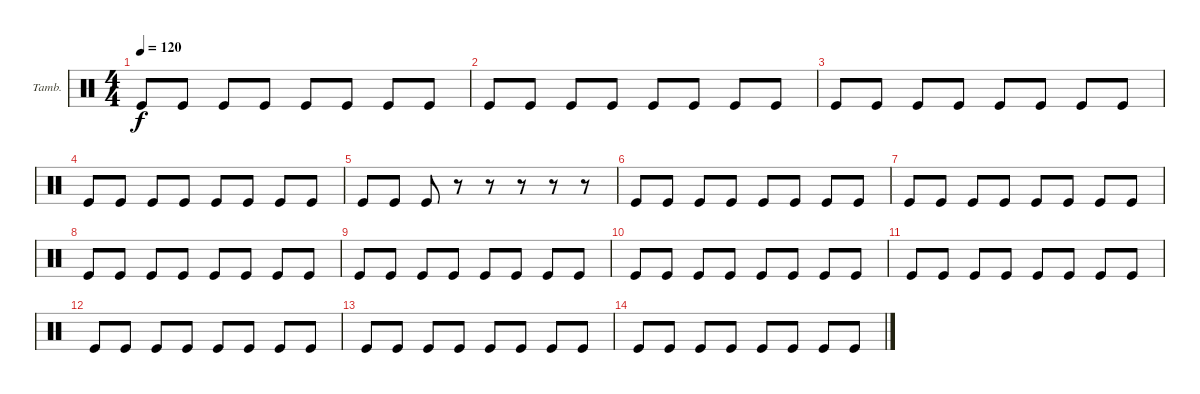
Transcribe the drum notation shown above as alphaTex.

\bracketExtendMode groupsimilarinstruments
\firstSystemTrackNameOrientation horizontal
\otherSystemsTrackNameOrientation horizontal
\track ("Tambourine" "Tamb.") {instrument percussion}
\staff {score}
\articulation defaults
\ts (4 4)
\tempo 120
\clef neutral
\ks c "Kick (hit)".8{dy f} "Kick (hit)".8 "Kick (hit)".8 "Kick (hit)".8 "Kick (hit)".8 "Kick (hit)".8 "Kick (hit)".8 "Kick (hit)".8
|
"Kick (hit)".8 "Kick (hit)".8 "Kick (hit)".8 "Kick (hit)".8 "Kick (hit)".8 "Kick (hit)".8 "Kick (hit)".8 "Kick (hit)".8 |
"Kick (hit)".8 "Kick (hit)".8 "Kick (hit)".8 "Kick (hit)".8 "Kick (hit)".8 "Kick (hit)".8 "Kick (hit)".8 "Kick (hit)".8 |
"Kick (hit)".8 "Kick (hit)".8 "Kick (hit)".8 "Kick (hit)".8 "Kick (hit)".8 "Kick (hit)".8 "Kick (hit)".8 "Kick (hit)".8 |
"Kick (hit)".8 "Kick (hit)".8 "Kick (hit)".8 r.8 r.8 r.8 r.8 r.8 |
"Kick (hit)".8 "Kick (hit)".8 "Kick (hit)".8 "Kick (hit)".8 "Kick (hit)".8 "Kick (hit)".8 "Kick (hit)".8 "Kick (hit)".8 |
"Kick (hit)".8 "Kick (hit)".8 "Kick (hit)".8 "Kick (hit)".8 "Kick (hit)".8 "Kick (hit)".8 "Kick (hit)".8 "Kick (hit)".8 |
"Kick (hit)".8 "Kick (hit)".8 "Kick (hit)".8 "Kick (hit)".8 "Kick (hit)".8 "Kick (hit)".8 "Kick (hit)".8 "Kick (hit)".8 |
"Kick (hit)".8 "Kick (hit)".8 "Kick (hit)".8 "Kick (hit)".8 "Kick (hit)".8 "Kick (hit)".8 "Kick (hit)".8 "Kick (hit)".8 |
"Kick (hit)".8 "Kick (hit)".8 "Kick (hit)".8 "Kick (hit)".8 "Kick (hit)".8 "Kick (hit)".8 "Kick (hit)".8 "Kick (hit)".8 |
"Kick (hit)".8 "Kick (hit)".8 "Kick (hit)".8 "Kick (hit)".8 "Kick (hit)".8 "Kick (hit)".8 "Kick (hit)".8 "Kick (hit)".8 |
"Kick (hit)".8 "Kick (hit)".8 "Kick (hit)".8 "Kick (hit)".8 "Kick (hit)".8 "Kick (hit)".8 "Kick (hit)".8 "Kick (hit)".8 |
"Kick (hit)".8 "Kick (hit)".8 "Kick (hit)".8 "Kick (hit)".8 "Kick (hit)".8 "Kick (hit)".8 "Kick (hit)".8 "Kick (hit)".8 |
"Kick (hit)".8 "Kick (hit)".8 "Kick (hit)".8 "Kick (hit)".8 "Kick (hit)".8 "Kick (hit)".8 "Kick (hit)".8 "Kick (hit)".8
